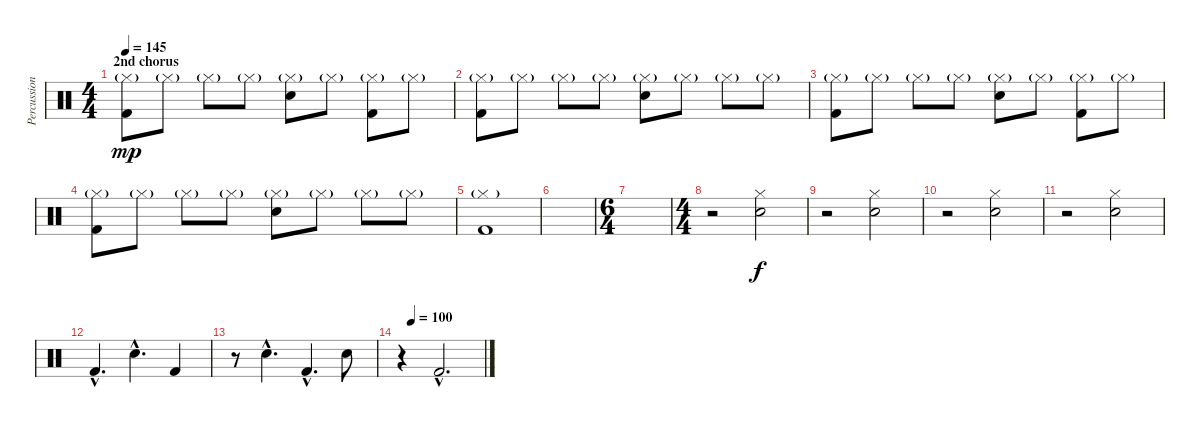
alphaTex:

\track ("Percussion (Bengerg)" "Percussion") {instrument percussion}
\staff {score}
\articulation defaults
\ts (4 4)
\section ("" "2nd chorus")
\tempo 145
\clef neutral
\ks c
("Hi-Hat (closed)"{g} "Kick (hit) 2").8{dy mp} "Hi-Hat (closed)"{g}.8 "Hi-Hat (closed)"{g}.8 "Hi-Hat (closed)"{g}.8 ("Hi-Hat (closed)"{g} "Hand Clap (hit)").8 "Hi-Hat (closed)"{g}.8 ("Hi-Hat (closed)"{g} "Kick (hit) 2").8 "Hi-Hat (closed)"{g}.8 |
("Hi-Hat (closed)"{g} "Kick (hit) 2").8 "Hi-Hat (closed)"{g}.8 "Hi-Hat (closed)"{g}.8 "Hi-Hat (closed)"{g}.8 ("Hi-Hat (closed)"{g} "Hand Clap (hit)").8 "Hi-Hat (closed)"{g}.8 "Hi-Hat (closed)"{g}.8 "Hi-Hat (closed)"{g}.8 |
("Hi-Hat (closed)"{g} "Kick (hit) 2").8 "Hi-Hat (closed)"{g}.8 "Hi-Hat (closed)"{g}.8 "Hi-Hat (closed)"{g}.8 ("Hi-Hat (closed)"{g} "Hand Clap (hit)").8 "Hi-Hat (closed)"{g}.8 ("Hi-Hat (closed)"{g} "Kick (hit) 2").8 "Hi-Hat (closed)"{g}.8 |
("Hi-Hat (closed)"{g} "Kick (hit) 2").8 "Hi-Hat (closed)"{g}.8 "Hi-Hat (closed)"{g}.8 "Hi-Hat (closed)"{g}.8 ("Hi-Hat (closed)"{g} "Hand Clap (hit)").8 "Hi-Hat (closed)"{g}.8 "Hi-Hat (closed)"{g}.8 "Hi-Hat (closed)"{g}.8 |
("Hi-Hat (closed)"{g} "Kick (hit) 2").1 |
|
\ts (6 4)
|
\ts (4 4)
r.2 ("Hi-Hat (closed)" "Hand Clap (hit)").2{dy f} |
r.2 ("Hi-Hat (closed)" "Hand Clap (hit)").2 |
r.2 ("Hi-Hat (closed)" "Hand Clap (hit)").2 |
r.2 ("Hi-Hat (closed)" "Hand Clap (hit)").2 |
"Kick (hit) 2"{hac}.4{d} "Hand Clap (hit)"{hac}.4{d} "Kick (hit) 2".4 |
r.8 "Hand Clap (hit)"{hac}.4{d} "Kick (hit) 2"{hac}.4{d} "Hand Clap (hit)".8 |
\tempo (100 0.125)
r.4 "Kick (hit) 2"{hac}.2{d}
